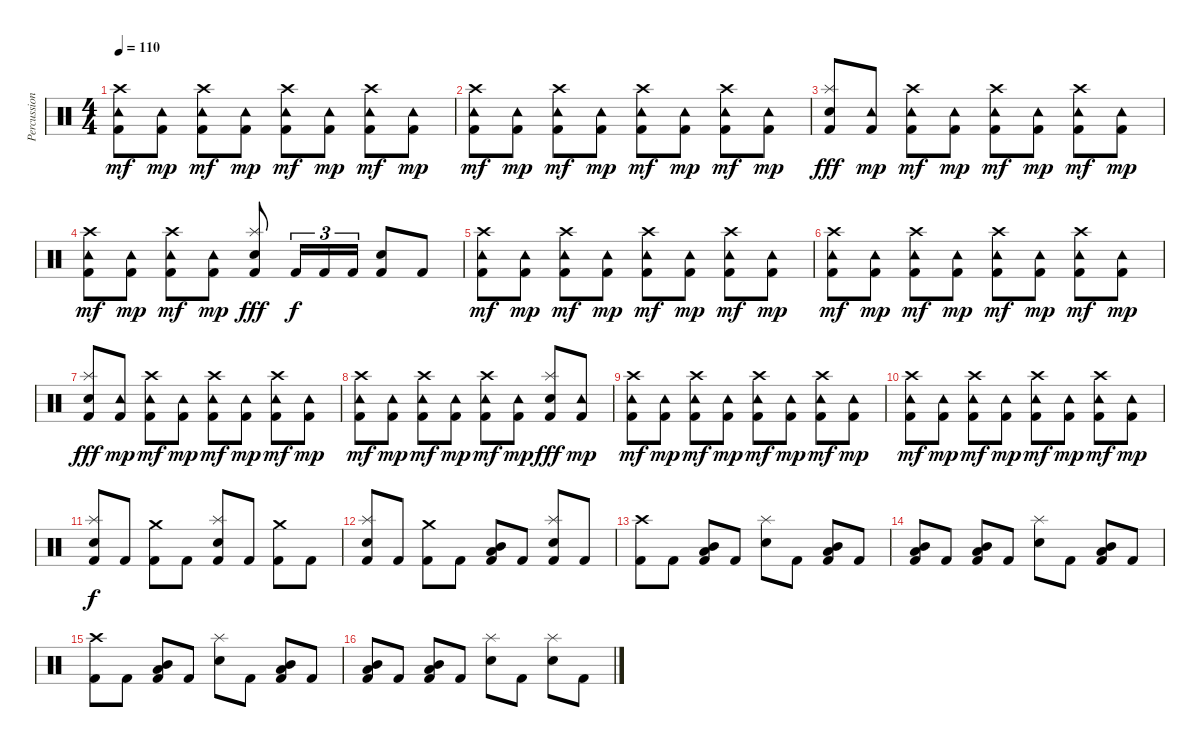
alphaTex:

\track ("Percussion" "Percussion") {instrument percussion}
\staff {score}
\articulation defaults
\ts (4 4)
\tempo 110
\clef neutral
\ks c
("Crash high (hit)" "Tambourine (hit)" "Kick (hit) 2").8{dy mf} ("Tambourine (hit)" "Kick (hit) 2").8{dy mp} ("Crash high (hit)" "Tambourine (hit)" "Kick (hit) 2").8{dy mf} ("Tambourine (hit)" "Kick (hit) 2").8{dy mp} ("Crash high (hit)" "Tambourine (hit)" "Kick (hit) 2").8{dy mf} ("Tambourine (hit)" "Kick (hit) 2").8{dy mp} ("Crash high (hit)" "Tambourine (hit)" "Kick (hit) 2").8{dy mf} ("Tambourine (hit)" "Kick (hit) 2").8{dy mp} |
("Crash high (hit)" "Tambourine (hit)" "Kick (hit) 2").8{dy mf} ("Tambourine (hit)" "Kick (hit) 2").8{dy mp} ("Crash high (hit)" "Tambourine (hit)" "Kick (hit) 2").8{dy mf} ("Tambourine (hit)" "Kick (hit) 2").8{dy mp} ("Crash high (hit)" "Tambourine (hit)" "Kick (hit) 2").8{dy mf} ("Tambourine (hit)" "Kick (hit) 2").8{dy mp} ("Crash high (hit)" "Tambourine (hit)" "Kick (hit) 2").8{dy mf} ("Tambourine (hit)" "Kick (hit) 2").8{dy mp} |
("Splash (hit)" "Snare (hit) 2" "Kick (hit) 2").8{dy fff} ("Tambourine (hit)" "Kick (hit) 2").8{dy mp} ("Crash high (hit)" "Tambourine (hit)" "Kick (hit) 2").8{dy mf} ("Tambourine (hit)" "Kick (hit) 2").8{dy mp} ("Crash high (hit)" "Tambourine (hit)" "Kick (hit) 2").8{dy mf} ("Tambourine (hit)" "Kick (hit) 2").8{dy mp} ("Crash high (hit)" "Tambourine (hit)" "Kick (hit) 2").8{dy mf} ("Tambourine (hit)" "Kick (hit) 2").8{dy mp} |
("Crash high (hit)" "Tambourine (hit)" "Kick (hit) 2").8{dy mf} ("Tambourine (hit)" "Kick (hit) 2").8{dy mp} ("Crash high (hit)" "Tambourine (hit)" "Kick (hit) 2").8{dy mf} ("Tambourine (hit)" "Kick (hit) 2").8{dy mp} ("Splash (hit)" "Snare (hit) 2" "Kick (hit) 2").8{dy fff} "Kick (hit) 2".16{tu (3 2) dy f} "Kick (hit) 2".16{tu (3 2)} "Kick (hit) 2".16{tu (3 2)} ("Snare (hit) 2" "Kick (hit) 2").8 "Kick (hit) 2".8 |
("Crash high (hit)" "Tambourine (hit)" "Kick (hit) 2").8{dy mf} ("Tambourine (hit)" "Kick (hit) 2").8{dy mp} ("Crash high (hit)" "Tambourine (hit)" "Kick (hit) 2").8{dy mf} ("Tambourine (hit)" "Kick (hit) 2").8{dy mp} ("Crash high (hit)" "Tambourine (hit)" "Kick (hit) 2").8{dy mf} ("Tambourine (hit)" "Kick (hit) 2").8{dy mp} ("Crash high (hit)" "Tambourine (hit)" "Kick (hit) 2").8{dy mf} ("Tambourine (hit)" "Kick (hit) 2").8{dy mp} |
("Crash high (hit)" "Tambourine (hit)" "Kick (hit) 2").8{dy mf} ("Tambourine (hit)" "Kick (hit) 2").8{dy mp} ("Crash high (hit)" "Tambourine (hit)" "Kick (hit) 2").8{dy mf} ("Tambourine (hit)" "Kick (hit) 2").8{dy mp} ("Crash high (hit)" "Tambourine (hit)" "Kick (hit) 2").8{dy mf} ("Tambourine (hit)" "Kick (hit) 2").8{dy mp} ("Crash high (hit)" "Tambourine (hit)" "Kick (hit) 2").8{dy mf} ("Tambourine (hit)" "Kick (hit) 2").8{dy mp} |
("Splash (hit)" "Snare (hit) 2" "Kick (hit) 2").8{dy fff} ("Tambourine (hit)" "Kick (hit) 2").8{dy mp} ("Crash high (hit)" "Tambourine (hit)" "Kick (hit) 2").8{dy mf} ("Tambourine (hit)" "Kick (hit) 2").8{dy mp} ("Crash high (hit)" "Tambourine (hit)" "Kick (hit) 2").8{dy mf} ("Tambourine (hit)" "Kick (hit) 2").8{dy mp} ("Crash high (hit)" "Tambourine (hit)" "Kick (hit) 2").8{dy mf} ("Tambourine (hit)" "Kick (hit) 2").8{dy mp} |
("Crash high (hit)" "Tambourine (hit)" "Kick (hit) 2").8{dy mf} ("Tambourine (hit)" "Kick (hit) 2").8{dy mp} ("Crash high (hit)" "Tambourine (hit)" "Kick (hit) 2").8{dy mf} ("Tambourine (hit)" "Kick (hit) 2").8{dy mp} ("Crash high (hit)" "Tambourine (hit)" "Kick (hit) 2").8{dy mf} ("Tambourine (hit)" "Kick (hit) 2").8{dy mp} ("Splash (hit)" "Snare (hit) 2" "Kick (hit) 2").8{dy fff} ("Tambourine (hit)" "Kick (hit) 2").8{dy mp} |
("Crash high (hit)" "Tambourine (hit)" "Kick (hit) 2").8{dy mf} ("Tambourine (hit)" "Kick (hit) 2").8{dy mp} ("Crash high (hit)" "Tambourine (hit)" "Kick (hit) 2").8{dy mf} ("Tambourine (hit)" "Kick (hit) 2").8{dy mp} ("Crash high (hit)" "Tambourine (hit)" "Kick (hit) 2").8{dy mf} ("Tambourine (hit)" "Kick (hit) 2").8{dy mp} ("Crash high (hit)" "Tambourine (hit)" "Kick (hit) 2").8{dy mf} ("Tambourine (hit)" "Kick (hit) 2").8{dy mp} |
("Crash high (hit)" "Tambourine (hit)" "Kick (hit) 2").8{dy mf} ("Tambourine (hit)" "Kick (hit) 2").8{dy mp} ("Crash high (hit)" "Tambourine (hit)" "Kick (hit) 2").8{dy mf} ("Tambourine (hit)" "Kick (hit) 2").8{dy mp} ("Crash high (hit)" "Tambourine (hit)" "Kick (hit) 2").8{dy mf} ("Tambourine (hit)" "Kick (hit) 2").8{dy mp} ("Crash high (hit)" "Tambourine (hit)" "Kick (hit) 2").8{dy mf} ("Tambourine (hit)" "Kick (hit) 2").8{dy mp} |
("Splash (hit)" "Snare (hit) 2" "Kick (hit) 2").8{dy f} "Kick (hit) 2".8 ("Crash medium (hit)" "Kick (hit) 2").8 "Kick (hit) 2".8 ("Splash (hit)" "Snare (hit) 2" "Kick (hit) 2").8 "Kick (hit) 2".8 ("Crash medium (hit)" "Kick (hit) 2").8 "Kick (hit) 2".8 |
("Splash (hit)" "Snare (hit) 2" "Kick (hit) 2").8 "Kick (hit) 2".8 ("Crash medium (hit)" "Kick (hit) 2").8 "Kick (hit) 2".8 ("Mid Tom (hit)" "Low Tom (hit)" "Kick (hit) 2").8 "Kick (hit) 2".8 ("Splash (hit)" "Snare (hit) 2" "Kick (hit) 2").8 "Kick (hit) 2".8 |
("Crash high (hit)" "Kick (hit) 2").8 "Kick (hit) 2".8 ("Mid Tom (hit)" "Low Tom (hit)" "Kick (hit) 2").8 "Kick (hit) 2".8 ("Splash (hit)" "Snare (hit) 2").8 "Kick (hit) 2".8 ("Mid Tom (hit)" "Low Tom (hit)" "Kick (hit) 2").8 "Kick (hit) 2".8 |
("Mid Tom (hit)" "Low Tom (hit)" "Kick (hit) 2").8 "Kick (hit) 2".8 ("Mid Tom (hit)" "Low Tom (hit)" "Kick (hit) 2").8 "Kick (hit) 2".8 ("Splash (hit)" "Snare (hit) 2").8 "Kick (hit) 2".8 ("Mid Tom (hit)" "Low Tom (hit)" "Kick (hit) 2").8 "Kick (hit) 2".8 |
("Crash high (hit)" "Kick (hit) 2").8 "Kick (hit) 2".8 ("Mid Tom (hit)" "Low Tom (hit)" "Kick (hit) 2").8 "Kick (hit) 2".8 ("Splash (hit)" "Snare (hit) 2").8 "Kick (hit) 2".8 ("Mid Tom (hit)" "Low Tom (hit)" "Kick (hit) 2").8 "Kick (hit) 2".8 |
("Mid Tom (hit)" "Low Tom (hit)" "Kick (hit) 2").8 "Kick (hit) 2".8 ("Mid Tom (hit)" "Low Tom (hit)" "Kick (hit) 2").8 "Kick (hit) 2".8 ("Splash (hit)" "Snare (hit) 2").8 "Kick (hit) 2".8 ("Splash (hit)" "Snare (hit) 2").8 "Kick (hit) 2".8
